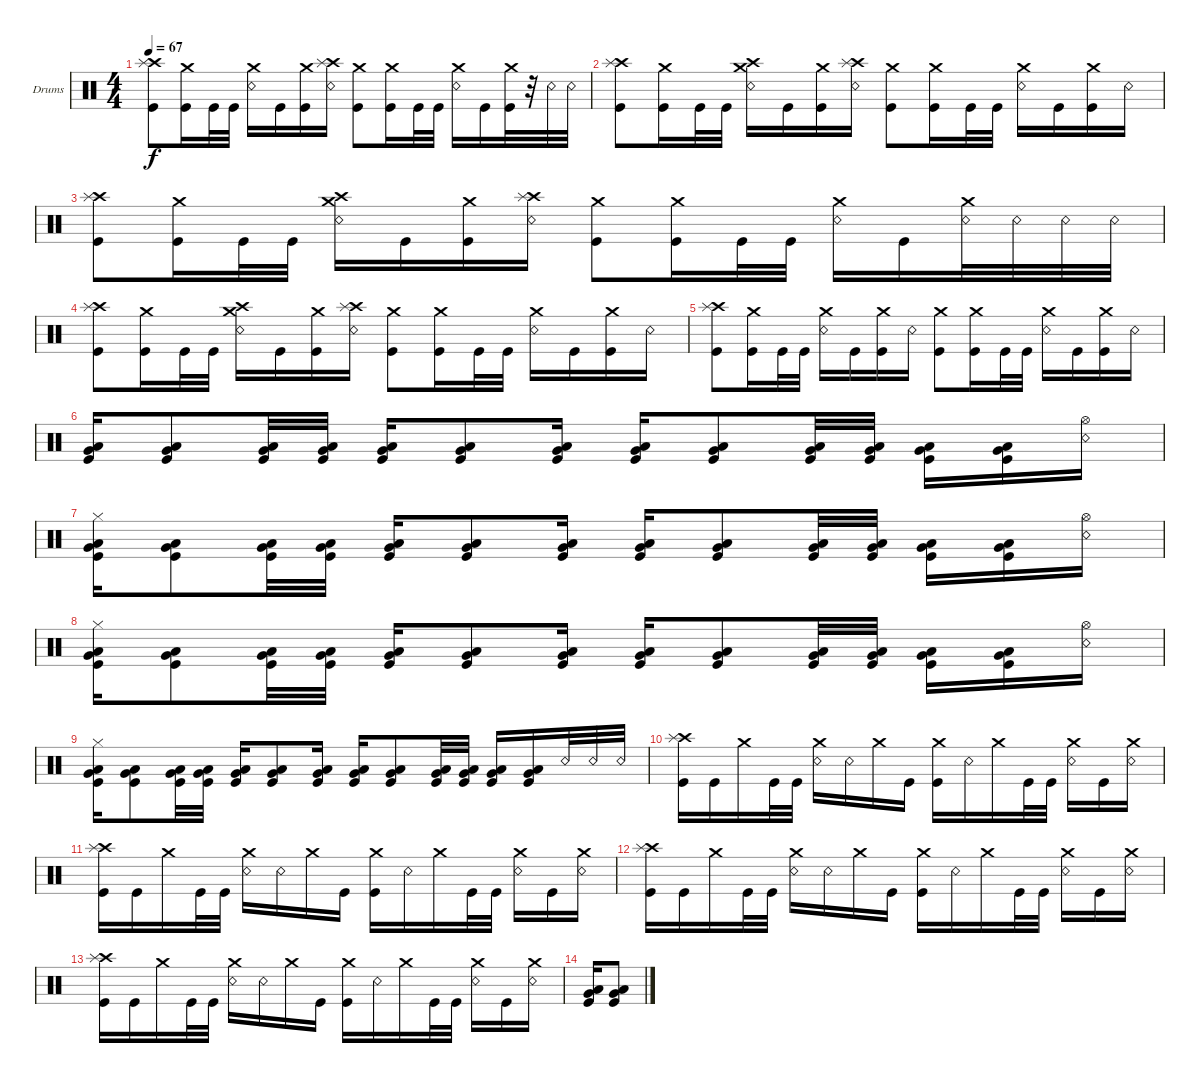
\defaultSystemsLayout 4
\bracketExtendMode groupsimilarinstruments
\firstSystemTrackNameOrientation horizontal
\otherSystemsTrackNameOrientation horizontal
\track ("Drumkit" "Drums") {instrument percussion}
\staff {score}
\articulation defaults
\ts (4 4)
\tempo 67
\clef neutral
\ks c
("Kick (hit)" "Crash high (hit)" "Splash (hit)").8{dy f} ("Kick (hit)" "Crash medium (hit)").16 "Kick (hit)".32 "Kick (hit)".32 ("Snare (rim shot)" "Crash medium (hit)").16 "Kick (hit)".16 ("Kick (hit)" "Crash medium (hit)").16 ("Snare (rim shot)" "Crash high (hit)" "Splash (hit)").16 ("Kick (hit)" "Crash medium (hit)").8 ("Kick (hit)" "Crash medium (hit)").16 "Kick (hit)".32 "Kick (hit)".32 ("Snare (rim shot)" "Crash medium (hit)").16 "Kick (hit)".16 ("Kick (hit)" "Crash medium (hit)").32 r.32 "Snare (rim shot)".32 "Snare (rim shot)".32 |
("Kick (hit)" "Crash high (hit)" "Splash (hit)").8 ("Kick (hit)" "Crash medium (hit)").16 "Kick (hit)".32 "Kick (hit)".32 ("Snare (rim shot)" "Crash high (hit)" "Crash medium (hit)").16 "Kick (hit)".16 ("Kick (hit)" "Crash medium (hit)").16 ("Snare (rim shot)" "Crash high (hit)" "Splash (hit)").16 ("Kick (hit)" "Crash medium (hit)").8 ("Kick (hit)" "Crash medium (hit)").16 "Kick (hit)".32 "Kick (hit)".32 ("Snare (rim shot)" "Crash medium (hit)").16 "Kick (hit)".16 ("Kick (hit)" "Crash medium (hit)").16 "Snare (rim shot)".16 |
("Kick (hit)" "Crash high (hit)" "Splash (hit)").8 ("Kick (hit)" "Crash medium (hit)").16 "Kick (hit)".32 "Kick (hit)".32 ("Snare (rim shot)" "Crash high (hit)" "Crash medium (hit)").16 "Kick (hit)".16 ("Kick (hit)" "Crash medium (hit)").16 ("Snare (rim shot)" "Crash high (hit)" "Splash (hit)").16 ("Kick (hit)" "Crash medium (hit)").8 ("Kick (hit)" "Crash medium (hit)").16 "Kick (hit)".32 "Kick (hit)".32 ("Snare (rim shot)" "Crash medium (hit)").16 "Kick (hit)".16 ("Crash medium (hit)" "Snare (rim shot)").32 "Snare (rim shot)".32 "Snare (rim shot)".32 "Snare (rim shot)".32 |
("Kick (hit)" "Crash high (hit)" "Splash (hit)").8 ("Kick (hit)" "Crash medium (hit)").16 "Kick (hit)".32 "Kick (hit)".32 ("Snare (rim shot)" "Crash high (hit)" "Crash medium (hit)").16 "Kick (hit)".16 ("Kick (hit)" "Crash medium (hit)").16 ("Snare (rim shot)" "Crash high (hit)" "Splash (hit)").16 ("Kick (hit)" "Crash medium (hit)").8 ("Kick (hit)" "Crash medium (hit)").16 "Kick (hit)".32 "Kick (hit)".32 ("Snare (rim shot)" "Crash medium (hit)").16 "Kick (hit)".16 ("Kick (hit)" "Crash medium (hit)").16 "Snare (rim shot)".16 |
("Kick (hit)" "Crash high (hit)" "Splash (hit)").8 ("Kick (hit)" "Crash medium (hit)").16 "Kick (hit)".32 "Kick (hit)".32 ("Snare (rim shot)" "Crash medium (hit)").16 "Kick (hit)".16 ("Kick (hit)" "Crash medium (hit)").16 "Snare (rim shot)".16 ("Kick (hit)" "Crash medium (hit)").8 ("Kick (hit)" "Crash medium (hit)").16 "Kick (hit)".32 "Kick (hit)".32 ("Snare (rim shot)" "Crash medium (hit)").16 "Kick (hit)".16 ("Kick (hit)" "Crash medium (hit)").16 "Snare (rim shot)".16 |
("Kick (hit)" "Very Low Tom (hit)" "Low Tom (hit)").16 ("Kick (hit)" "Very Low Tom (hit)" "Low Tom (hit)").8 ("Kick (hit)" "Very Low Tom (hit)" "Low Tom (hit)").32 ("Kick (hit)" "Very Low Tom (hit)" "Low Tom (hit)").32 ("Kick (hit)" "Very Low Tom (hit)" "Low Tom (hit)").16 ("Kick (hit)" "Very Low Tom (hit)" "Low Tom (hit)").8 ("Kick (hit)" "Very Low Tom (hit)" "Low Tom (hit)").16 ("Kick (hit)" "Very Low Tom (hit)" "Low Tom (hit)").16 ("Kick (hit)" "Very Low Tom (hit)" "Low Tom (hit)").8 ("Kick (hit)" "Very Low Tom (hit)" "Low Tom (hit)").32 ("Kick (hit)" "Very Low Tom (hit)" "Low Tom (hit)").32 ("Kick (hit)" "Very Low Tom (hit)" "Low Tom (hit)").16 ("Kick (hit)" "Very Low Tom (hit)" "Low Tom (hit)").16 ("Snare (rim shot)" "Hi-Hat (open)").16 |
("Kick (hit)" "Very Low Tom (hit)" "Low Tom (hit)" "Hi-Hat (closed)").16 ("Kick (hit)" "Very Low Tom (hit)" "Low Tom (hit)").8 ("Kick (hit)" "Very Low Tom (hit)" "Low Tom (hit)").32 ("Kick (hit)" "Very Low Tom (hit)" "Low Tom (hit)").32 ("Kick (hit)" "Very Low Tom (hit)" "Low Tom (hit)").16 ("Kick (hit)" "Very Low Tom (hit)" "Low Tom (hit)").8 ("Kick (hit)" "Very Low Tom (hit)" "Low Tom (hit)").16 ("Kick (hit)" "Very Low Tom (hit)" "Low Tom (hit)").16 ("Kick (hit)" "Very Low Tom (hit)" "Low Tom (hit)").8 ("Kick (hit)" "Very Low Tom (hit)" "Low Tom (hit)").32 ("Kick (hit)" "Very Low Tom (hit)" "Low Tom (hit)").32 ("Kick (hit)" "Very Low Tom (hit)" "Low Tom (hit)").16 ("Kick (hit)" "Very Low Tom (hit)" "Low Tom (hit)").16 ("Snare (rim shot)" "Hi-Hat (open)").16 |
("Kick (hit)" "Very Low Tom (hit)" "Low Tom (hit)" "Hi-Hat (closed)").16 ("Kick (hit)" "Very Low Tom (hit)" "Low Tom (hit)").8 ("Kick (hit)" "Very Low Tom (hit)" "Low Tom (hit)").32 ("Kick (hit)" "Very Low Tom (hit)" "Low Tom (hit)").32 ("Kick (hit)" "Very Low Tom (hit)" "Low Tom (hit)").16 ("Kick (hit)" "Very Low Tom (hit)" "Low Tom (hit)").8 ("Kick (hit)" "Very Low Tom (hit)" "Low Tom (hit)").16 ("Kick (hit)" "Very Low Tom (hit)" "Low Tom (hit)").16 ("Kick (hit)" "Very Low Tom (hit)" "Low Tom (hit)").8 ("Kick (hit)" "Very Low Tom (hit)" "Low Tom (hit)").32 ("Kick (hit)" "Very Low Tom (hit)" "Low Tom (hit)").32 ("Kick (hit)" "Very Low Tom (hit)" "Low Tom (hit)").16 ("Kick (hit)" "Very Low Tom (hit)" "Low Tom (hit)").16 ("Snare (rim shot)" "Hi-Hat (open)").16 |
("Kick (hit)" "Very Low Tom (hit)" "Low Tom (hit)" "Hi-Hat (closed)").16 ("Kick (hit)" "Very Low Tom (hit)" "Low Tom (hit)").8 ("Kick (hit)" "Very Low Tom (hit)" "Low Tom (hit)").32 ("Kick (hit)" "Very Low Tom (hit)" "Low Tom (hit)").32 ("Kick (hit)" "Very Low Tom (hit)" "Low Tom (hit)").16 ("Kick (hit)" "Very Low Tom (hit)" "Low Tom (hit)").8 ("Kick (hit)" "Very Low Tom (hit)" "Low Tom (hit)").16 ("Kick (hit)" "Very Low Tom (hit)" "Low Tom (hit)").16 ("Kick (hit)" "Very Low Tom (hit)" "Low Tom (hit)").8 ("Kick (hit)" "Very Low Tom (hit)" "Low Tom (hit)").32 ("Kick (hit)" "Very Low Tom (hit)" "Low Tom (hit)").32 ("Kick (hit)" "Very Low Tom (hit)" "Low Tom (hit)").16 ("Kick (hit)" "Very Low Tom (hit)" "Low Tom (hit)").16 "Snare (rim shot)".32 "Snare (rim shot)".32 "Snare (rim shot)".32 |
("Kick (hit)" "Crash high (hit)" "Splash (hit)").16 "Kick (hit)".16 "Crash medium (hit)".16 "Kick (hit)".32 "Kick (hit)".32 ("Snare (rim shot)" "Crash medium (hit)").16 "Snare (rim shot)".16 "Crash medium (hit)".16 "Kick (hit)".16 ("Kick (hit)" "Crash medium (hit)").16 "Snare (rim shot)".16 "Crash medium (hit)".16 "Kick (hit)".32 "Kick (hit)".32 ("Snare (rim shot)" "Crash medium (hit)").16 "Kick (hit)".16 ("Snare (rim shot)" "Crash medium (hit)").16 |
("Kick (hit)" "Crash high (hit)" "Splash (hit)").16 "Kick (hit)".16 "Crash medium (hit)".16 "Kick (hit)".32 "Kick (hit)".32 ("Snare (rim shot)" "Crash medium (hit)").16 "Snare (rim shot)".16 "Crash medium (hit)".16 "Kick (hit)".16 ("Kick (hit)" "Crash medium (hit)").16 "Snare (rim shot)".16 "Crash medium (hit)".16 "Kick (hit)".32 "Kick (hit)".32 ("Snare (rim shot)" "Crash medium (hit)").16 "Kick (hit)".16 ("Snare (rim shot)" "Crash medium (hit)").16 |
("Kick (hit)" "Crash high (hit)" "Splash (hit)").16 "Kick (hit)".16 "Crash medium (hit)".16 "Kick (hit)".32 "Kick (hit)".32 ("Snare (rim shot)" "Crash medium (hit)").16 "Snare (rim shot)".16 "Crash medium (hit)".16 "Kick (hit)".16 ("Kick (hit)" "Crash medium (hit)").16 "Snare (rim shot)".16 "Crash medium (hit)".16 "Kick (hit)".32 "Kick (hit)".32 ("Snare (rim shot)" "Crash medium (hit)").16 "Kick (hit)".16 ("Snare (rim shot)" "Crash medium (hit)").16 |
("Kick (hit)" "Crash high (hit)" "Splash (hit)").16 "Kick (hit)".16 "Crash medium (hit)".16 "Kick (hit)".32 "Kick (hit)".32 ("Snare (rim shot)" "Crash medium (hit)").16 "Snare (rim shot)".16 "Crash medium (hit)".16 "Kick (hit)".16 ("Kick (hit)" "Crash medium (hit)").16 "Snare (rim shot)".16 "Crash medium (hit)".16 "Kick (hit)".32 "Kick (hit)".32 ("Snare (rim shot)" "Crash medium (hit)").16 "Kick (hit)".16 ("Snare (rim shot)" "Crash medium (hit)").16 |
("Kick (hit)" "Very Low Tom (hit)" "Low Tom (hit)").16 ("Kick (hit)" "Very Low Tom (hit)" "Low Tom (hit)").8
